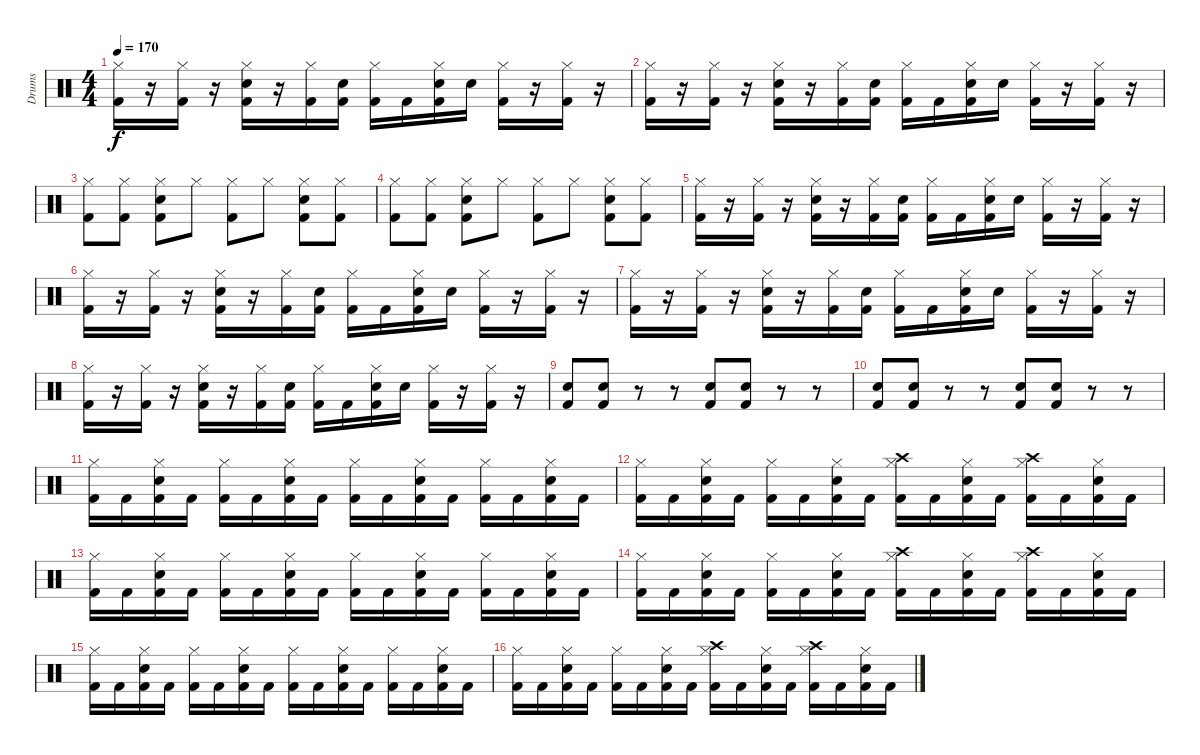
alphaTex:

\track ("Drums" "Drums") {instrument percussion}
\staff {score}
\articulation defaults
\ts (4 4)
\tempo 170
\clef neutral
\ks c
("Hi-Hat (closed)" "Kick (hit) 2").16{dy f} r.16 ("Hi-Hat (closed)" "Kick (hit) 2").16 r.16 ("Hi-Hat (closed)" "Electric Snare (hit)" "Kick (hit) 2").16 r.16 ("Hi-Hat (closed)" "Kick (hit) 2").16 ("Kick (hit) 2" "Electric Snare (hit)").16 ("Hi-Hat (closed)" "Kick (hit) 2").16 "Kick (hit) 2".16 ("Hi-Hat (closed)" "Kick (hit) 2" "Electric Snare (hit)").16 "Electric Snare (hit)".16 ("Hi-Hat (closed)" "Kick (hit) 2").16 r.16 ("Hi-Hat (closed)" "Kick (hit) 2").16 r.16 |
("Hi-Hat (closed)" "Kick (hit) 2").16 r.16 ("Hi-Hat (closed)" "Kick (hit) 2").16 r.16 ("Hi-Hat (closed)" "Electric Snare (hit)" "Kick (hit) 2").16 r.16 ("Hi-Hat (closed)" "Kick (hit) 2").16 ("Kick (hit) 2" "Electric Snare (hit)").16 ("Hi-Hat (closed)" "Kick (hit) 2").16 "Kick (hit) 2".16 ("Hi-Hat (closed)" "Kick (hit) 2" "Electric Snare (hit)").16 "Electric Snare (hit)".16 ("Hi-Hat (closed)" "Kick (hit) 2").16 r.16 ("Hi-Hat (closed)" "Kick (hit) 2").16 r.16 |
("Hi-Hat (closed)" "Kick (hit) 2").8 ("Hi-Hat (closed)" "Kick (hit) 2").8 ("Hi-Hat (closed)" "Electric Snare (hit)" "Kick (hit) 2").8 "Hi-Hat (closed)".8 ("Hi-Hat (closed)" "Kick (hit) 2").8 "Hi-Hat (closed)".8 ("Hi-Hat (closed)" "Electric Snare (hit)" "Kick (hit) 2").8 ("Hi-Hat (closed)" "Kick (hit) 2").8 |
("Hi-Hat (closed)" "Kick (hit) 2").8 ("Hi-Hat (closed)" "Kick (hit) 2").8 ("Hi-Hat (closed)" "Electric Snare (hit)" "Kick (hit) 2").8 "Hi-Hat (closed)".8 ("Hi-Hat (closed)" "Kick (hit) 2").8 "Hi-Hat (closed)".8 ("Hi-Hat (closed)" "Electric Snare (hit)" "Kick (hit) 2").8 ("Hi-Hat (closed)" "Kick (hit) 2").8 |
("Hi-Hat (closed)" "Kick (hit) 2").16 r.16 ("Hi-Hat (closed)" "Kick (hit) 2").16 r.16 ("Hi-Hat (closed)" "Electric Snare (hit)" "Kick (hit) 2").16 r.16 ("Hi-Hat (closed)" "Kick (hit) 2").16 ("Kick (hit) 2" "Electric Snare (hit)").16 ("Hi-Hat (closed)" "Kick (hit) 2").16 "Kick (hit) 2".16 ("Hi-Hat (closed)" "Kick (hit) 2" "Electric Snare (hit)").16 "Electric Snare (hit)".16 ("Hi-Hat (closed)" "Kick (hit) 2").16 r.16 ("Hi-Hat (closed)" "Kick (hit) 2").16 r.16 |
("Hi-Hat (closed)" "Kick (hit) 2").16 r.16 ("Hi-Hat (closed)" "Kick (hit) 2").16 r.16 ("Hi-Hat (closed)" "Electric Snare (hit)" "Kick (hit) 2").16 r.16 ("Hi-Hat (closed)" "Kick (hit) 2").16 ("Kick (hit) 2" "Electric Snare (hit)").16 ("Hi-Hat (closed)" "Kick (hit) 2").16 "Kick (hit) 2".16 ("Hi-Hat (closed)" "Kick (hit) 2" "Electric Snare (hit)").16 "Electric Snare (hit)".16 ("Hi-Hat (closed)" "Kick (hit) 2").16 r.16 ("Hi-Hat (closed)" "Kick (hit) 2").16 r.16 |
("Hi-Hat (closed)" "Kick (hit) 2").16 r.16 ("Hi-Hat (closed)" "Kick (hit) 2").16 r.16 ("Hi-Hat (closed)" "Electric Snare (hit)" "Kick (hit) 2").16 r.16 ("Hi-Hat (closed)" "Kick (hit) 2").16 ("Kick (hit) 2" "Electric Snare (hit)").16 ("Hi-Hat (closed)" "Kick (hit) 2").16 "Kick (hit) 2".16 ("Hi-Hat (closed)" "Kick (hit) 2" "Electric Snare (hit)").16 "Electric Snare (hit)".16 ("Hi-Hat (closed)" "Kick (hit) 2").16 r.16 ("Hi-Hat (closed)" "Kick (hit) 2").16 r.16 |
("Hi-Hat (closed)" "Kick (hit) 2").16 r.16 ("Hi-Hat (closed)" "Kick (hit) 2").16 r.16 ("Hi-Hat (closed)" "Electric Snare (hit)" "Kick (hit) 2").16 r.16 ("Hi-Hat (closed)" "Kick (hit) 2").16 ("Kick (hit) 2" "Electric Snare (hit)").16 ("Hi-Hat (closed)" "Kick (hit) 2").16 "Kick (hit) 2".16 ("Hi-Hat (closed)" "Kick (hit) 2" "Electric Snare (hit)").16 "Electric Snare (hit)".16 ("Hi-Hat (closed)" "Kick (hit) 2").16 r.16 ("Hi-Hat (closed)" "Kick (hit) 2").16 r.16 |
("Electric Snare (hit)" "Kick (hit) 2").8 ("Electric Snare (hit)" "Kick (hit) 2").8 r.8 r.8 ("Electric Snare (hit)" "Kick (hit) 2").8 ("Electric Snare (hit)" "Kick (hit) 2").8 r.8 r.8 |
("Electric Snare (hit)" "Kick (hit) 2").8 ("Electric Snare (hit)" "Kick (hit) 2").8 r.8 r.8 ("Electric Snare (hit)" "Kick (hit) 2").8 ("Electric Snare (hit)" "Kick (hit) 2").8 r.8 r.8 |
("Kick (hit) 2" "Hi-Hat (closed)").16 "Kick (hit) 2".16 ("Kick (hit) 2" "Hi-Hat (closed)" "Electric Snare (hit)").16 "Kick (hit) 2".16 ("Kick (hit) 2" "Hi-Hat (closed)").16 "Kick (hit) 2".16 ("Kick (hit) 2" "Hi-Hat (closed)" "Electric Snare (hit)").16 "Kick (hit) 2".16 ("Kick (hit) 2" "Hi-Hat (closed)").16 "Kick (hit) 2".16 ("Kick (hit) 2" "Hi-Hat (closed)" "Electric Snare (hit)").16 "Kick (hit) 2".16 ("Kick (hit) 2" "Hi-Hat (closed)").16 "Kick (hit) 2".16 ("Kick (hit) 2" "Hi-Hat (closed)" "Electric Snare (hit)").16 "Kick (hit) 2".16 |
("Kick (hit) 2" "Hi-Hat (closed)").16 "Kick (hit) 2".16 ("Kick (hit) 2" "Hi-Hat (closed)" "Electric Snare (hit)").16 "Kick (hit) 2".16 ("Kick (hit) 2" "Hi-Hat (closed)").16 "Kick (hit) 2".16 ("Kick (hit) 2" "Hi-Hat (closed)" "Electric Snare (hit)").16 "Kick (hit) 2".16 ("Kick (hit) 2" "Hi-Hat (closed)" "Crash high (hit)").16 "Kick (hit) 2".16 ("Kick (hit) 2" "Hi-Hat (closed)" "Electric Snare (hit)").16 "Kick (hit) 2".16 ("Kick (hit) 2" "Hi-Hat (closed)" "Crash high (hit)").16 "Kick (hit) 2".16 ("Kick (hit) 2" "Hi-Hat (closed)" "Electric Snare (hit)").16 "Kick (hit) 2".16 |
("Kick (hit) 2" "Hi-Hat (closed)").16 "Kick (hit) 2".16 ("Kick (hit) 2" "Hi-Hat (closed)" "Electric Snare (hit)").16 "Kick (hit) 2".16 ("Kick (hit) 2" "Hi-Hat (closed)").16 "Kick (hit) 2".16 ("Kick (hit) 2" "Hi-Hat (closed)" "Electric Snare (hit)").16 "Kick (hit) 2".16 ("Kick (hit) 2" "Hi-Hat (closed)").16 "Kick (hit) 2".16 ("Kick (hit) 2" "Hi-Hat (closed)" "Electric Snare (hit)").16 "Kick (hit) 2".16 ("Kick (hit) 2" "Hi-Hat (closed)").16 "Kick (hit) 2".16 ("Kick (hit) 2" "Hi-Hat (closed)" "Electric Snare (hit)").16 "Kick (hit) 2".16 |
("Kick (hit) 2" "Hi-Hat (closed)").16 "Kick (hit) 2".16 ("Kick (hit) 2" "Hi-Hat (closed)" "Electric Snare (hit)").16 "Kick (hit) 2".16 ("Kick (hit) 2" "Hi-Hat (closed)").16 "Kick (hit) 2".16 ("Kick (hit) 2" "Hi-Hat (closed)" "Electric Snare (hit)").16 "Kick (hit) 2".16 ("Kick (hit) 2" "Hi-Hat (closed)" "Crash high (hit)").16 "Kick (hit) 2".16 ("Kick (hit) 2" "Hi-Hat (closed)" "Electric Snare (hit)").16 "Kick (hit) 2".16 ("Kick (hit) 2" "Hi-Hat (closed)" "Crash high (hit)").16 "Kick (hit) 2".16 ("Kick (hit) 2" "Hi-Hat (closed)" "Electric Snare (hit)").16 "Kick (hit) 2".16 |
("Kick (hit) 2" "Hi-Hat (closed)").16 "Kick (hit) 2".16 ("Kick (hit) 2" "Hi-Hat (closed)" "Electric Snare (hit)").16 "Kick (hit) 2".16 ("Kick (hit) 2" "Hi-Hat (closed)").16 "Kick (hit) 2".16 ("Kick (hit) 2" "Hi-Hat (closed)" "Electric Snare (hit)").16 "Kick (hit) 2".16 ("Kick (hit) 2" "Hi-Hat (closed)").16 "Kick (hit) 2".16 ("Kick (hit) 2" "Hi-Hat (closed)" "Electric Snare (hit)").16 "Kick (hit) 2".16 ("Kick (hit) 2" "Hi-Hat (closed)").16 "Kick (hit) 2".16 ("Kick (hit) 2" "Hi-Hat (closed)" "Electric Snare (hit)").16 "Kick (hit) 2".16 |
("Kick (hit) 2" "Hi-Hat (closed)").16 "Kick (hit) 2".16 ("Kick (hit) 2" "Hi-Hat (closed)" "Electric Snare (hit)").16 "Kick (hit) 2".16 ("Kick (hit) 2" "Hi-Hat (closed)").16 "Kick (hit) 2".16 ("Kick (hit) 2" "Hi-Hat (closed)" "Electric Snare (hit)").16 "Kick (hit) 2".16 ("Kick (hit) 2" "Hi-Hat (closed)" "Crash high (hit)").16 "Kick (hit) 2".16 ("Kick (hit) 2" "Hi-Hat (closed)" "Electric Snare (hit)").16 "Kick (hit) 2".16 ("Kick (hit) 2" "Hi-Hat (closed)" "Crash high (hit)").16 "Kick (hit) 2".16 ("Kick (hit) 2" "Hi-Hat (closed)" "Electric Snare (hit)").16 "Kick (hit) 2".16
